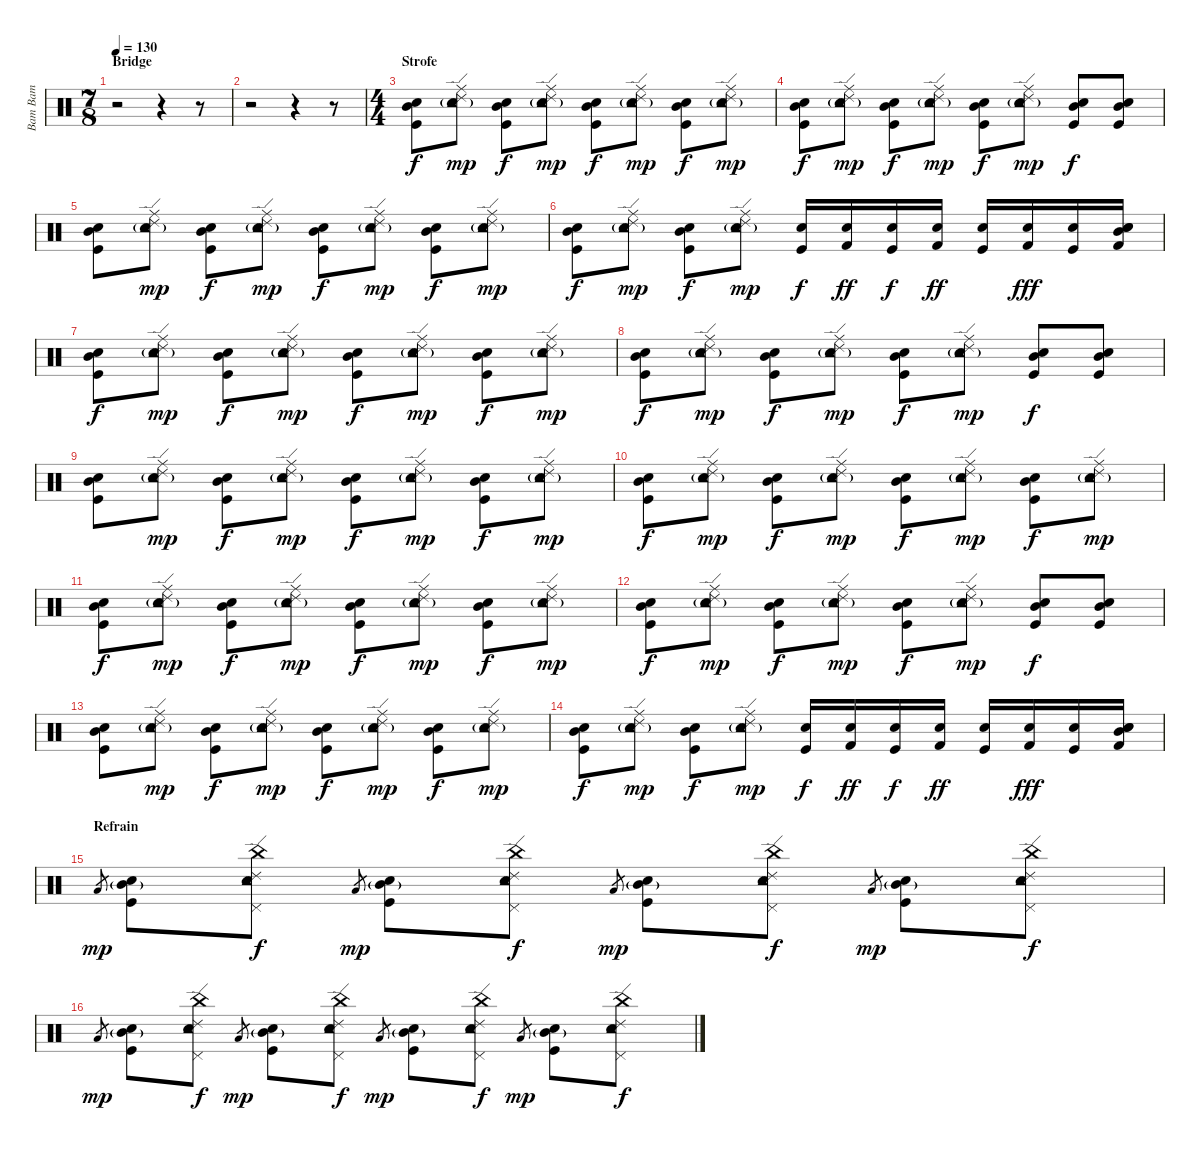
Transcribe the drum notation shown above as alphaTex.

\track ("Bam Bam" "Bam Bam") {instrument percussion}
\staff {score}
\articulation defaults
\ts (7 8)
\section ("" "Bridge")
\tempo 130
\clef neutral
\ks c
r.2{dy f} r.4 r.8 |
r.2 r.4 r.8 |
\ts (4 4)
\section ("" "Strofe")
("Kick (hit)" "Mid Tom (hit)" "Electric Snare (hit)").8 ("Ride (middle)" "Tambourine (hit)" "Ride (edge) 2" "Snare (hit) 2"{g}).8{dy mp} ("Kick (hit)" "Mid Tom (hit)" "Electric Snare (hit)").8{dy f} ("Ride (middle)" "Tambourine (hit)" "Ride (edge) 2" "Snare (hit) 2"{g}).8{dy mp} ("Kick (hit)" "Mid Tom (hit)" "Electric Snare (hit)").8{dy f} ("Ride (middle)" "Tambourine (hit)" "Ride (edge) 2" "Snare (hit) 2"{g}).8{dy mp} ("Kick (hit)" "Mid Tom (hit)" "Electric Snare (hit)").8{dy f} ("Ride (middle)" "Tambourine (hit)" "Ride (edge) 2" "Snare (hit) 2"{g}).8{dy mp} |
("Kick (hit)" "Mid Tom (hit)" "Electric Snare (hit)").8{dy f} ("Ride (middle)" "Tambourine (hit)" "Ride (edge) 2" "Snare (hit) 2"{g}).8{dy mp} ("Kick (hit)" "Mid Tom (hit)" "Electric Snare (hit)").8{dy f} ("Ride (middle)" "Tambourine (hit)" "Ride (edge) 2" "Snare (hit) 2"{g}).8{dy mp} ("Kick (hit)" "Mid Tom (hit)" "Electric Snare (hit)").8{dy f} ("Ride (middle)" "Tambourine (hit)" "Ride (edge) 2" "Snare (hit) 2"{g}).8{dy mp} ("Kick (hit)" "Mid Tom (hit)" "Snare (hit) 2").8{dy f} ("Kick (hit)" "Mid Tom (hit)" "Electric Snare (hit)").8 |
("Kick (hit)" "Mid Tom (hit)" "Electric Snare (hit)").8 ("Ride (middle)" "Tambourine (hit)" "Ride (edge) 2" "Snare (hit) 2"{g}).8{dy mp} ("Kick (hit)" "Mid Tom (hit)" "Electric Snare (hit)").8{dy f} ("Ride (middle)" "Tambourine (hit)" "Ride (edge) 2" "Snare (hit) 2"{g}).8{dy mp} ("Kick (hit)" "Mid Tom (hit)" "Electric Snare (hit)").8{dy f} ("Ride (middle)" "Tambourine (hit)" "Ride (edge) 2" "Snare (hit) 2"{g}).8{dy mp} ("Kick (hit)" "Mid Tom (hit)" "Electric Snare (hit)").8{dy f} ("Ride (middle)" "Tambourine (hit)" "Ride (edge) 2" "Snare (hit) 2"{g}).8{dy mp} |
("Kick (hit)" "Mid Tom (hit)" "Electric Snare (hit)").8{dy f} ("Ride (middle)" "Tambourine (hit)" "Ride (edge) 2" "Snare (hit) 2"{g}).8{dy mp} ("Kick (hit)" "Mid Tom (hit)" "Electric Snare (hit)").8{dy f} ("Ride (middle)" "Tambourine (hit)" "Ride (edge) 2" "Snare (hit) 2"{g}).8{dy mp} ("Kick (hit)" "Snare (hit) 2").16{dy f} ("Kick (hit) 2" "Electric Snare (hit)").16{dy ff} ("Kick (hit)" "Snare (hit) 2").16{dy f} ("Kick (hit) 2" "Electric Snare (hit)").16{dy ff} ("Kick (hit)" "Snare (hit) 2").16 ("Kick (hit) 2" "Electric Snare (hit)").16{dy fff} ("Kick (hit)" "Snare (hit) 2").16 ("Mid Tom (hit)" "Kick (hit) 2" "Electric Snare (hit)" "Snare (hit) 2").16 |
("Kick (hit)" "Mid Tom (hit)" "Electric Snare (hit)").8{dy f} ("Ride (middle)" "Tambourine (hit)" "Ride (edge) 2" "Snare (hit) 2"{g}).8{dy mp} ("Kick (hit)" "Mid Tom (hit)" "Electric Snare (hit)").8{dy f} ("Ride (middle)" "Tambourine (hit)" "Ride (edge) 2" "Snare (hit) 2"{g}).8{dy mp} ("Kick (hit)" "Mid Tom (hit)" "Electric Snare (hit)").8{dy f} ("Ride (middle)" "Tambourine (hit)" "Ride (edge) 2" "Snare (hit) 2"{g}).8{dy mp} ("Kick (hit)" "Mid Tom (hit)" "Electric Snare (hit)").8{dy f} ("Ride (middle)" "Tambourine (hit)" "Ride (edge) 2" "Snare (hit) 2"{g}).8{dy mp} |
("Kick (hit)" "Mid Tom (hit)" "Electric Snare (hit)").8{dy f} ("Ride (middle)" "Tambourine (hit)" "Ride (edge) 2" "Snare (hit) 2"{g}).8{dy mp} ("Kick (hit)" "Mid Tom (hit)" "Electric Snare (hit)").8{dy f} ("Ride (middle)" "Tambourine (hit)" "Ride (edge) 2" "Snare (hit) 2"{g}).8{dy mp} ("Kick (hit)" "Mid Tom (hit)" "Electric Snare (hit)").8{dy f} ("Ride (middle)" "Tambourine (hit)" "Ride (edge) 2" "Snare (hit) 2"{g}).8{dy mp} ("Kick (hit)" "Mid Tom (hit)" "Snare (hit) 2").8{dy f} ("Kick (hit)" "Mid Tom (hit)" "Electric Snare (hit)").8 |
("Kick (hit)" "Mid Tom (hit)" "Electric Snare (hit)").8 ("Ride (middle)" "Tambourine (hit)" "Ride (edge) 2" "Snare (hit) 2"{g}).8{dy mp} ("Kick (hit)" "Mid Tom (hit)" "Electric Snare (hit)").8{dy f} ("Ride (middle)" "Tambourine (hit)" "Ride (edge) 2" "Snare (hit) 2"{g}).8{dy mp} ("Kick (hit)" "Mid Tom (hit)" "Electric Snare (hit)").8{dy f} ("Ride (middle)" "Tambourine (hit)" "Ride (edge) 2" "Snare (hit) 2"{g}).8{dy mp} ("Kick (hit)" "Mid Tom (hit)" "Electric Snare (hit)").8{dy f} ("Ride (middle)" "Tambourine (hit)" "Ride (edge) 2" "Snare (hit) 2"{g}).8{dy mp} |
("Kick (hit)" "Mid Tom (hit)" "Electric Snare (hit)").8{dy f} ("Ride (middle)" "Tambourine (hit)" "Ride (edge) 2" "Snare (hit) 2"{g}).8{dy mp} ("Kick (hit)" "Mid Tom (hit)" "Electric Snare (hit)").8{dy f} ("Ride (middle)" "Tambourine (hit)" "Ride (edge) 2" "Snare (hit) 2"{g}).8{dy mp} ("Kick (hit)" "Mid Tom (hit)" "Electric Snare (hit)").8{dy f} ("Ride (middle)" "Tambourine (hit)" "Ride (edge) 2" "Snare (hit) 2"{g}).8{dy mp} ("Kick (hit)" "Mid Tom (hit)" "Electric Snare (hit)").8{dy f} ("Ride (middle)" "Tambourine (hit)" "Ride (edge) 2" "Snare (hit) 2"{g}).8{dy mp} |
("Kick (hit)" "Mid Tom (hit)" "Electric Snare (hit)").8{dy f} ("Ride (middle)" "Tambourine (hit)" "Ride (edge) 2" "Snare (hit) 2"{g}).8{dy mp} ("Kick (hit)" "Mid Tom (hit)" "Electric Snare (hit)").8{dy f} ("Ride (middle)" "Tambourine (hit)" "Ride (edge) 2" "Snare (hit) 2"{g}).8{dy mp} ("Kick (hit)" "Mid Tom (hit)" "Electric Snare (hit)").8{dy f} ("Ride (middle)" "Tambourine (hit)" "Ride (edge) 2" "Snare (hit) 2"{g}).8{dy mp} ("Kick (hit)" "Mid Tom (hit)" "Electric Snare (hit)").8{dy f} ("Ride (middle)" "Tambourine (hit)" "Ride (edge) 2" "Snare (hit) 2"{g}).8{dy mp} |
("Kick (hit)" "Mid Tom (hit)" "Electric Snare (hit)").8{dy f} ("Ride (middle)" "Tambourine (hit)" "Ride (edge) 2" "Snare (hit) 2"{g}).8{dy mp} ("Kick (hit)" "Mid Tom (hit)" "Electric Snare (hit)").8{dy f} ("Ride (middle)" "Tambourine (hit)" "Ride (edge) 2" "Snare (hit) 2"{g}).8{dy mp} ("Kick (hit)" "Mid Tom (hit)" "Electric Snare (hit)").8{dy f} ("Ride (middle)" "Tambourine (hit)" "Ride (edge) 2" "Snare (hit) 2"{g}).8{dy mp} ("Kick (hit)" "Mid Tom (hit)" "Snare (hit) 2").8{dy f} ("Kick (hit)" "Mid Tom (hit)" "Electric Snare (hit)").8 |
("Kick (hit)" "Mid Tom (hit)" "Electric Snare (hit)").8 ("Ride (middle)" "Tambourine (hit)" "Ride (edge) 2" "Snare (hit) 2"{g}).8{dy mp} ("Kick (hit)" "Mid Tom (hit)" "Electric Snare (hit)").8{dy f} ("Ride (middle)" "Tambourine (hit)" "Ride (edge) 2" "Snare (hit) 2"{g}).8{dy mp} ("Kick (hit)" "Mid Tom (hit)" "Electric Snare (hit)").8{dy f} ("Ride (middle)" "Tambourine (hit)" "Ride (edge) 2" "Snare (hit) 2"{g}).8{dy mp} ("Kick (hit)" "Mid Tom (hit)" "Electric Snare (hit)").8{dy f} ("Ride (middle)" "Tambourine (hit)" "Ride (edge) 2" "Snare (hit) 2"{g}).8{dy mp} |
("Kick (hit)" "Mid Tom (hit)" "Electric Snare (hit)").8{dy f} ("Ride (middle)" "Tambourine (hit)" "Ride (edge) 2" "Snare (hit) 2"{g}).8{dy mp} ("Kick (hit)" "Mid Tom (hit)" "Electric Snare (hit)").8{dy f} ("Ride (middle)" "Tambourine (hit)" "Ride (edge) 2" "Snare (hit) 2"{g}).8{dy mp} ("Kick (hit)" "Snare (hit) 2").16{dy f} ("Kick (hit) 2" "Electric Snare (hit)").16{dy ff} ("Kick (hit)" "Snare (hit) 2").16{dy f} ("Kick (hit) 2" "Electric Snare (hit)").16{dy ff} ("Kick (hit)" "Snare (hit) 2").16 ("Kick (hit) 2" "Electric Snare (hit)").16{dy fff} ("Kick (hit)" "Snare (hit) 2").16 ("Mid Tom (hit)" "Kick (hit) 2" "Electric Snare (hit)" "Snare (hit) 2").16 |
\section ("" "Refrain")
"Low Tom (hit)".8{gr dy mp} ("Mid Tom (hit)"{g} "Kick (hit)" "Snare (hit) 2").8 ("Tambourine (hit)" "Pedal Hi-Hat (hit)" "China (hit)" "Ride (edge) 2" "Electric Snare (hit)").8{dy f} "Low Tom (hit)".8{gr dy mp} ("Mid Tom (hit)"{g} "Kick (hit)" "Snare (hit) 2").8 ("Tambourine (hit)" "Pedal Hi-Hat (hit)" "China (hit)" "Ride (edge) 2" "Electric Snare (hit)").8{dy f} "Low Tom (hit)".8{gr dy mp} ("Mid Tom (hit)"{g} "Kick (hit)" "Snare (hit) 2").8 ("Tambourine (hit)" "Pedal Hi-Hat (hit)" "China (hit)" "Ride (edge) 2" "Electric Snare (hit)").8{dy f} "Low Tom (hit)".8{gr dy mp} ("Mid Tom (hit)"{g} "Kick (hit)" "Snare (hit) 2").8 ("Tambourine (hit)" "Pedal Hi-Hat (hit)" "China (hit)" "Ride (edge) 2" "Electric Snare (hit)").8{dy f} |
"Low Tom (hit)".8{gr dy mp} ("Mid Tom (hit)"{g} "Kick (hit)" "Snare (hit) 2").8 ("Tambourine (hit)" "Pedal Hi-Hat (hit)" "China (hit)" "Ride (edge) 2" "Electric Snare (hit)").8{dy f} "Low Tom (hit)".8{gr dy mp} ("Mid Tom (hit)"{g} "Kick (hit)" "Snare (hit) 2").8 ("Tambourine (hit)" "Pedal Hi-Hat (hit)" "China (hit)" "Ride (edge) 2" "Electric Snare (hit)").8{dy f} "Low Tom (hit)".8{gr dy mp} ("Mid Tom (hit)"{g} "Kick (hit)" "Snare (hit) 2").8 ("Tambourine (hit)" "Pedal Hi-Hat (hit)" "China (hit)" "Ride (edge) 2" "Electric Snare (hit)").8{dy f} "Low Tom (hit)".8{gr dy mp} ("Mid Tom (hit)"{g} "Kick (hit)" "Snare (hit) 2").8 ("Tambourine (hit)" "Pedal Hi-Hat (hit)" "China (hit)" "Ride (edge) 2" "Electric Snare (hit)").8{dy f}
